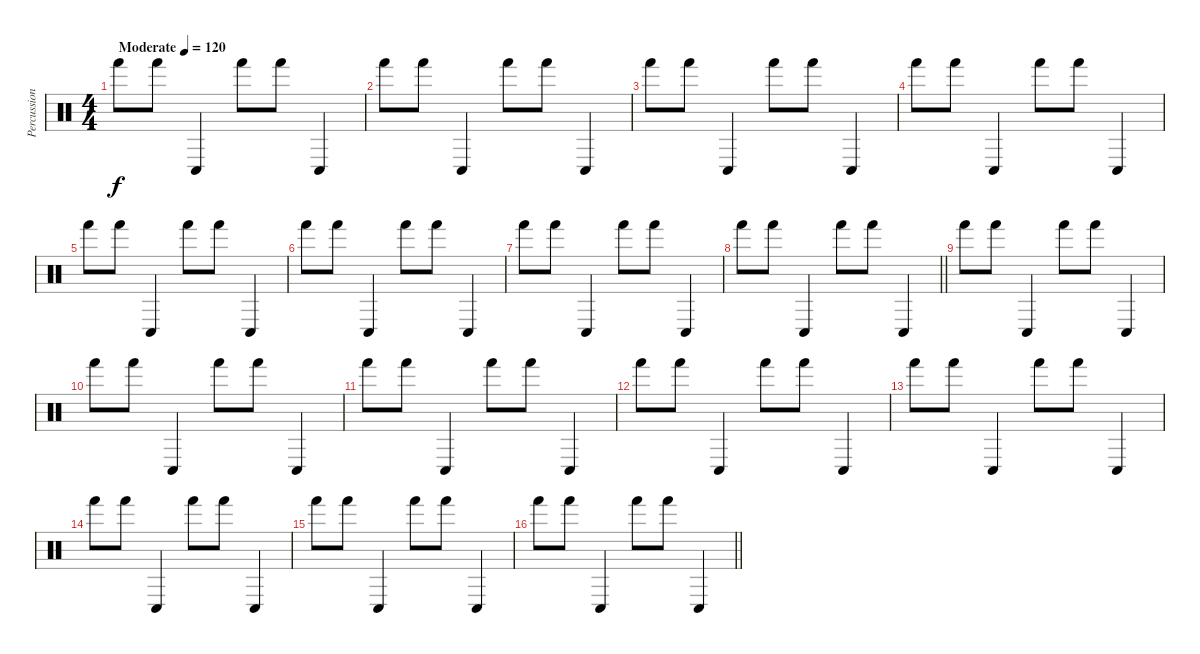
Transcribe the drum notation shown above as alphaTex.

\track ("Percussions" "Percussion") {instrument percussion}
\staff {score}
\articulation defaults
\ts (4 4)
\tempo (120 "Moderate")
\clef neutral
\ks c "Hand (hit)".8{dy f} "Hand (hit)".8 "Conga low (hit)".4 "Hand (hit)".8 "Hand (hit)".8 "Conga low (hit)".4
|
"Hand (hit)".8 "Hand (hit)".8 "Conga low (hit)".4 "Hand (hit)".8 "Hand (hit)".8 "Conga low (hit)".4 |
"Hand (hit)".8 "Hand (hit)".8 "Conga low (hit)".4 "Hand (hit)".8 "Hand (hit)".8 "Conga low (hit)".4 |
"Hand (hit)".8 "Hand (hit)".8 "Conga low (hit)".4 "Hand (hit)".8 "Hand (hit)".8 "Conga low (hit)".4 |
"Hand (hit)".8 "Hand (hit)".8 "Conga low (hit)".4 "Hand (hit)".8 "Hand (hit)".8 "Conga low (hit)".4 |
"Hand (hit)".8 "Hand (hit)".8 "Conga low (hit)".4 "Hand (hit)".8 "Hand (hit)".8 "Conga low (hit)".4 |
"Hand (hit)".8 "Hand (hit)".8 "Conga low (hit)".4 "Hand (hit)".8 "Hand (hit)".8 "Conga low (hit)".4 |
\barLineRight lightlight "Hand (hit)".8 "Hand (hit)".8 "Conga low (hit)".4 "Hand (hit)".8 "Hand (hit)".8 "Conga low (hit)".4
|
"Hand (hit)".8 "Hand (hit)".8 "Conga low (hit)".4 "Hand (hit)".8 "Hand (hit)".8 "Conga low (hit)".4 |
"Hand (hit)".8 "Hand (hit)".8 "Conga low (hit)".4 "Hand (hit)".8 "Hand (hit)".8 "Conga low (hit)".4 |
"Hand (hit)".8 "Hand (hit)".8 "Conga low (hit)".4 "Hand (hit)".8 "Hand (hit)".8 "Conga low (hit)".4 |
"Hand (hit)".8 "Hand (hit)".8 "Conga low (hit)".4 "Hand (hit)".8 "Hand (hit)".8 "Conga low (hit)".4 |
"Hand (hit)".8 "Hand (hit)".8 "Conga low (hit)".4 "Hand (hit)".8 "Hand (hit)".8 "Conga low (hit)".4 |
"Hand (hit)".8 "Hand (hit)".8 "Conga low (hit)".4 "Hand (hit)".8 "Hand (hit)".8 "Conga low (hit)".4 |
"Hand (hit)".8 "Hand (hit)".8 "Conga low (hit)".4 "Hand (hit)".8 "Hand (hit)".8 "Conga low (hit)".4 |
\barLineRight lightlight "Hand (hit)".8 "Hand (hit)".8 "Conga low (hit)".4 "Hand (hit)".8 "Hand (hit)".8 "Conga low (hit)".4
